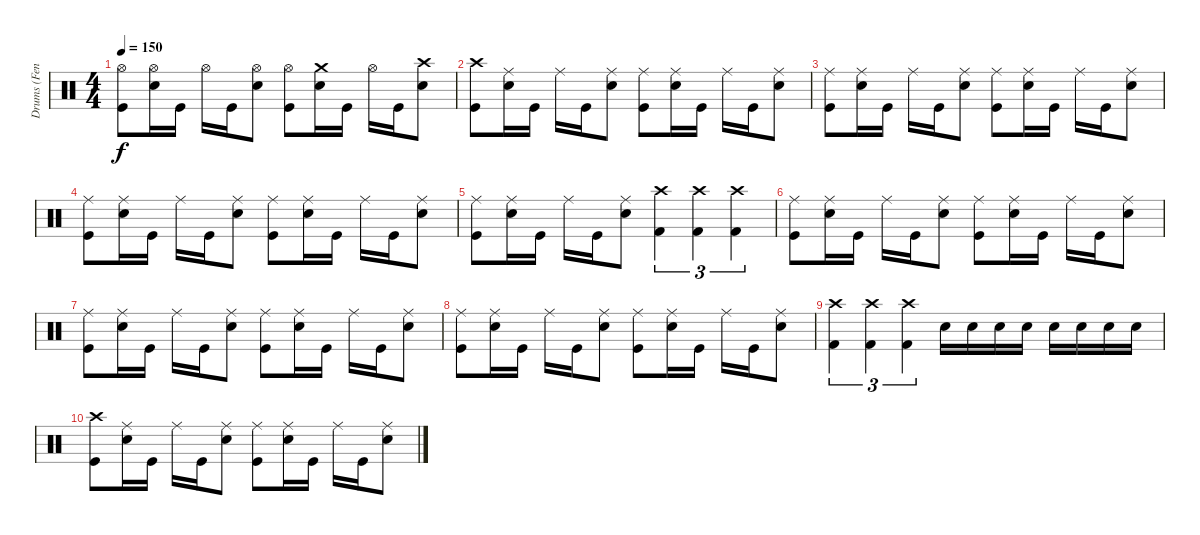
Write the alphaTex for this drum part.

\track ("Drums (Fenriz)" "Drums (Fen") {instrument percussion}
\staff {score}
\articulation defaults
\ts (4 4)
\tempo 150
\clef neutral
\ks c
("Hi-Hat (open)" "Kick (hit)").8{dy f} ("Hi-Hat (open)" "Electric Snare (hit)").16 "Kick (hit)".16 "Hi-Hat (open)".16 "Kick (hit)".16 ("Hi-Hat (open)" "Electric Snare (hit)").8 ("Hi-Hat (open)" "Kick (hit)").8 ("Crash medium (hit)" "Electric Snare (hit)").16 "Kick (hit)".16 "Hi-Hat (open)".16 "Kick (hit)".16 ("Crash high (hit)" "Electric Snare (hit)").8 |
("Crash high (hit)" "Kick (hit)").8 ("Ride (middle)" "Electric Snare (hit)").16 "Kick (hit)".16 "Ride (middle)".16 "Kick (hit)".16 ("Ride (middle)" "Electric Snare (hit)").8 ("Ride (middle)" "Kick (hit)").8 ("Ride (middle)" "Electric Snare (hit)").16 "Kick (hit)".16 "Ride (middle)".16 "Kick (hit)".16 ("Ride (middle)" "Electric Snare (hit)").8 |
("Ride (middle)" "Kick (hit)").8 ("Ride (middle)" "Electric Snare (hit)").16 "Kick (hit)".16 "Ride (middle)".16 "Kick (hit)".16 ("Ride (middle)" "Electric Snare (hit)").8 ("Ride (middle)" "Kick (hit)").8 ("Ride (middle)" "Electric Snare (hit)").16 "Kick (hit)".16 "Ride (middle)".16 "Kick (hit)".16 ("Ride (middle)" "Electric Snare (hit)").8 |
("Ride (middle)" "Kick (hit)").8 ("Ride (middle)" "Electric Snare (hit)").16 "Kick (hit)".16 "Ride (middle)".16 "Kick (hit)".16 ("Ride (middle)" "Electric Snare (hit)").8 ("Ride (middle)" "Kick (hit)").8 ("Ride (middle)" "Electric Snare (hit)").16 "Kick (hit)".16 "Ride (middle)".16 "Kick (hit)".16 ("Ride (middle)" "Electric Snare (hit)").8 |
("Ride (middle)" "Kick (hit)").8 ("Ride (middle)" "Electric Snare (hit)").16 "Kick (hit)".16 "Ride (middle)".16 "Kick (hit)".16 ("Ride (middle)" "Electric Snare (hit)").8 ("Crash high (hit)" "Kick (hit) 2").4{tu (3 2)} ("Crash high (hit)" "Kick (hit) 2").4{tu (3 2)} ("Crash high (hit)" "Kick (hit) 2").4{tu (3 2)} |
("Ride (middle)" "Kick (hit)").8 ("Ride (middle)" "Electric Snare (hit)").16 "Kick (hit)".16 "Ride (middle)".16 "Kick (hit)".16 ("Ride (middle)" "Electric Snare (hit)").8 ("Ride (middle)" "Kick (hit)").8 ("Ride (middle)" "Electric Snare (hit)").16 "Kick (hit)".16 "Ride (middle)".16 "Kick (hit)".16 ("Ride (middle)" "Electric Snare (hit)").8 |
("Ride (middle)" "Kick (hit)").8 ("Ride (middle)" "Electric Snare (hit)").16 "Kick (hit)".16 "Ride (middle)".16 "Kick (hit)".16 ("Ride (middle)" "Electric Snare (hit)").8 ("Ride (middle)" "Kick (hit)").8 ("Ride (middle)" "Electric Snare (hit)").16 "Kick (hit)".16 "Ride (middle)".16 "Kick (hit)".16 ("Ride (middle)" "Electric Snare (hit)").8 |
("Ride (middle)" "Kick (hit)").8 ("Ride (middle)" "Electric Snare (hit)").16 "Kick (hit)".16 "Ride (middle)".16 "Kick (hit)".16 ("Ride (middle)" "Electric Snare (hit)").8 ("Ride (middle)" "Kick (hit)").8 ("Ride (middle)" "Electric Snare (hit)").16 "Kick (hit)".16 "Ride (middle)".16 "Kick (hit)".16 ("Ride (middle)" "Electric Snare (hit)").8 |
("Crash high (hit)" "Kick (hit) 2").4{tu (3 2)} ("Crash high (hit)" "Kick (hit) 2").4{tu (3 2)} ("Crash high (hit)" "Kick (hit) 2").4{tu (3 2)} "Electric Snare (hit)".16 "Electric Snare (hit)".16 "Electric Snare (hit)".16 "Electric Snare (hit)".16 "Electric Snare (hit)".16 "Electric Snare (hit)".16 "Electric Snare (hit)".16 "Electric Snare (hit)".16 |
("Crash high (hit)" "Kick (hit)").8 ("Ride (middle)" "Electric Snare (hit)").16 "Kick (hit)".16 "Ride (middle)".16 "Kick (hit)".16 ("Ride (middle)" "Electric Snare (hit)").8 ("Ride (middle)" "Kick (hit)").8 ("Ride (middle)" "Electric Snare (hit)").16 "Kick (hit)".16 "Ride (middle)".16 "Kick (hit)".16 ("Ride (middle)" "Electric Snare (hit)").8
